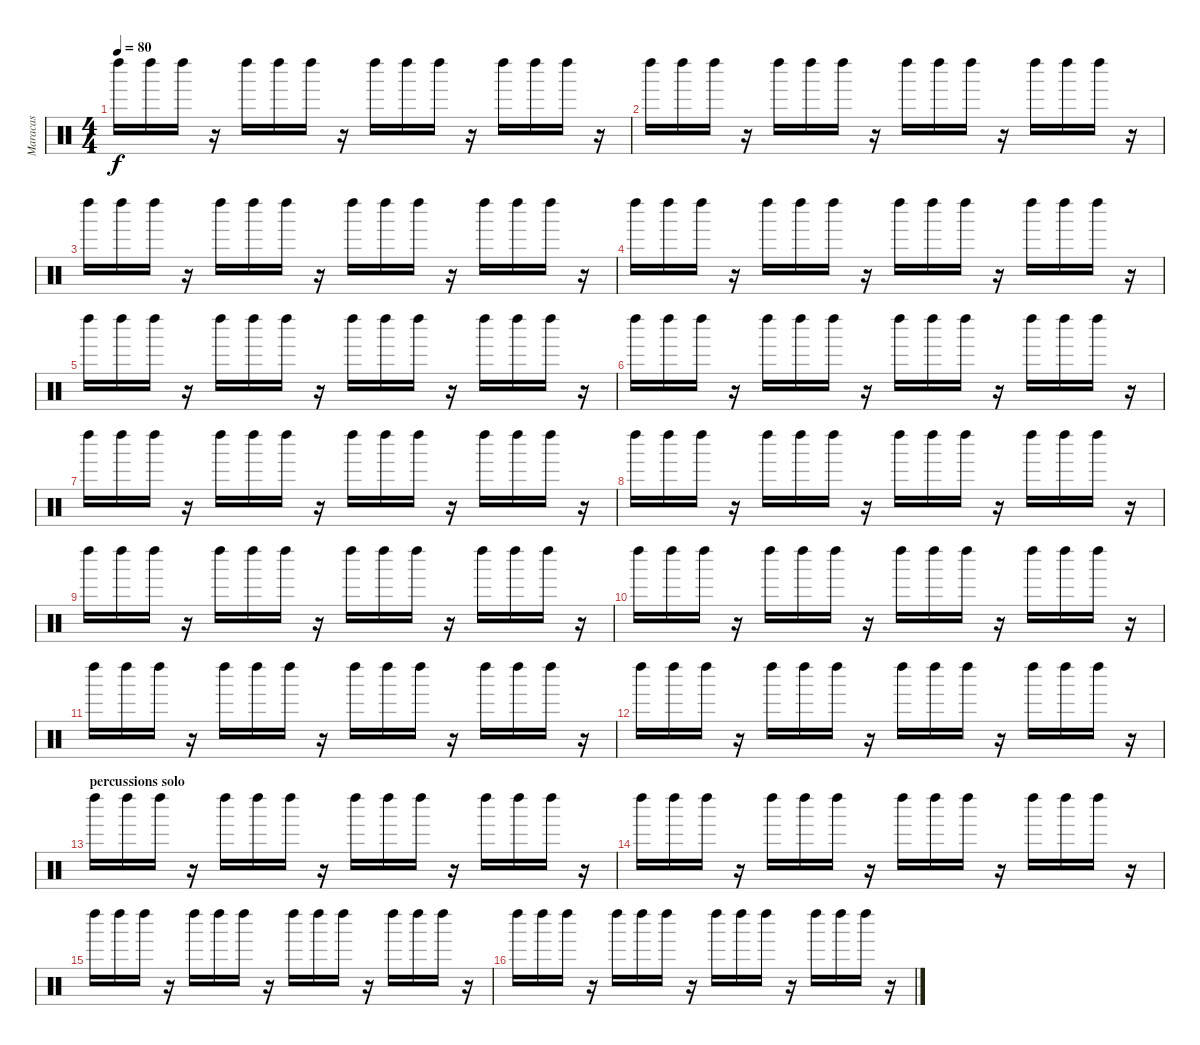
\track ("Maracas" "Maracas") {instrument percussion}
\staff {score}
\articulation defaults
\ts (4 4)
\tempo 80
\clef neutral
\ks aminor "Left Maraca (hit)".16{dy f} "Left Maraca (hit)".16 "Left Maraca (hit)".16
r.16 "Left Maraca (hit)".16 "Left Maraca (hit)".16 "Left Maraca (hit)".16 r.16 "Left Maraca (hit)".16 "Left Maraca (hit)".16 "Left Maraca (hit)".16 r.16 "Left Maraca (hit)".16 "Left Maraca (hit)".16 "Left Maraca (hit)".16 r.16 |
"Left Maraca (hit)".16 "Left Maraca (hit)".16 "Left Maraca (hit)".16 r.16 "Left Maraca (hit)".16 "Left Maraca (hit)".16 "Left Maraca (hit)".16 r.16 "Left Maraca (hit)".16 "Left Maraca (hit)".16 "Left Maraca (hit)".16 r.16 "Left Maraca (hit)".16 "Left Maraca (hit)".16 "Left Maraca (hit)".16 r.16 |
"Left Maraca (hit)".16 "Left Maraca (hit)".16 "Left Maraca (hit)".16 r.16 "Left Maraca (hit)".16 "Left Maraca (hit)".16 "Left Maraca (hit)".16 r.16 "Left Maraca (hit)".16 "Left Maraca (hit)".16 "Left Maraca (hit)".16 r.16 "Left Maraca (hit)".16 "Left Maraca (hit)".16 "Left Maraca (hit)".16 r.16 |
"Left Maraca (hit)".16 "Left Maraca (hit)".16 "Left Maraca (hit)".16 r.16 "Left Maraca (hit)".16 "Left Maraca (hit)".16 "Left Maraca (hit)".16 r.16 "Left Maraca (hit)".16 "Left Maraca (hit)".16 "Left Maraca (hit)".16 r.16 "Left Maraca (hit)".16 "Left Maraca (hit)".16 "Left Maraca (hit)".16 r.16 |
"Left Maraca (hit)".16 "Left Maraca (hit)".16 "Left Maraca (hit)".16 r.16 "Left Maraca (hit)".16 "Left Maraca (hit)".16 "Left Maraca (hit)".16 r.16 "Left Maraca (hit)".16 "Left Maraca (hit)".16 "Left Maraca (hit)".16 r.16 "Left Maraca (hit)".16 "Left Maraca (hit)".16 "Left Maraca (hit)".16 r.16 |
"Left Maraca (hit)".16 "Left Maraca (hit)".16 "Left Maraca (hit)".16 r.16 "Left Maraca (hit)".16 "Left Maraca (hit)".16 "Left Maraca (hit)".16 r.16 "Left Maraca (hit)".16 "Left Maraca (hit)".16 "Left Maraca (hit)".16 r.16 "Left Maraca (hit)".16 "Left Maraca (hit)".16 "Left Maraca (hit)".16 r.16 |
"Left Maraca (hit)".16 "Left Maraca (hit)".16 "Left Maraca (hit)".16 r.16 "Left Maraca (hit)".16 "Left Maraca (hit)".16 "Left Maraca (hit)".16 r.16 "Left Maraca (hit)".16 "Left Maraca (hit)".16 "Left Maraca (hit)".16 r.16 "Left Maraca (hit)".16 "Left Maraca (hit)".16 "Left Maraca (hit)".16 r.16 |
"Left Maraca (hit)".16 "Left Maraca (hit)".16 "Left Maraca (hit)".16 r.16 "Left Maraca (hit)".16 "Left Maraca (hit)".16 "Left Maraca (hit)".16 r.16 "Left Maraca (hit)".16 "Left Maraca (hit)".16 "Left Maraca (hit)".16 r.16 "Left Maraca (hit)".16 "Left Maraca (hit)".16 "Left Maraca (hit)".16 r.16 |
"Left Maraca (hit)".16 "Left Maraca (hit)".16 "Left Maraca (hit)".16 r.16 "Left Maraca (hit)".16 "Left Maraca (hit)".16 "Left Maraca (hit)".16 r.16 "Left Maraca (hit)".16 "Left Maraca (hit)".16 "Left Maraca (hit)".16 r.16 "Left Maraca (hit)".16 "Left Maraca (hit)".16 "Left Maraca (hit)".16 r.16 |
"Left Maraca (hit)".16 "Left Maraca (hit)".16 "Left Maraca (hit)".16 r.16 "Left Maraca (hit)".16 "Left Maraca (hit)".16 "Left Maraca (hit)".16 r.16 "Left Maraca (hit)".16 "Left Maraca (hit)".16 "Left Maraca (hit)".16 r.16 "Left Maraca (hit)".16 "Left Maraca (hit)".16 "Left Maraca (hit)".16 r.16 |
"Left Maraca (hit)".16 "Left Maraca (hit)".16 "Left Maraca (hit)".16 r.16 "Left Maraca (hit)".16 "Left Maraca (hit)".16 "Left Maraca (hit)".16 r.16 "Left Maraca (hit)".16 "Left Maraca (hit)".16 "Left Maraca (hit)".16 r.16 "Left Maraca (hit)".16 "Left Maraca (hit)".16 "Left Maraca (hit)".16 r.16 |
"Left Maraca (hit)".16 "Left Maraca (hit)".16 "Left Maraca (hit)".16 r.16 "Left Maraca (hit)".16 "Left Maraca (hit)".16 "Left Maraca (hit)".16 r.16 "Left Maraca (hit)".16 "Left Maraca (hit)".16 "Left Maraca (hit)".16 r.16 "Left Maraca (hit)".16 "Left Maraca (hit)".16 "Left Maraca (hit)".16 r.16 |
\section ("" "percussions solo")
"Left Maraca (hit)".16 "Left Maraca (hit)".16 "Left Maraca (hit)".16 r.16 "Left Maraca (hit)".16 "Left Maraca (hit)".16 "Left Maraca (hit)".16 r.16 "Left Maraca (hit)".16 "Left Maraca (hit)".16 "Left Maraca (hit)".16 r.16 "Left Maraca (hit)".16 "Left Maraca (hit)".16 "Left Maraca (hit)".16 r.16 |
"Left Maraca (hit)".16 "Left Maraca (hit)".16 "Left Maraca (hit)".16 r.16 "Left Maraca (hit)".16 "Left Maraca (hit)".16 "Left Maraca (hit)".16 r.16 "Left Maraca (hit)".16 "Left Maraca (hit)".16 "Left Maraca (hit)".16 r.16 "Left Maraca (hit)".16 "Left Maraca (hit)".16 "Left Maraca (hit)".16 r.16 |
"Left Maraca (hit)".16 "Left Maraca (hit)".16 "Left Maraca (hit)".16 r.16 "Left Maraca (hit)".16 "Left Maraca (hit)".16 "Left Maraca (hit)".16 r.16 "Left Maraca (hit)".16 "Left Maraca (hit)".16 "Left Maraca (hit)".16 r.16 "Left Maraca (hit)".16 "Left Maraca (hit)".16 "Left Maraca (hit)".16 r.16 |
"Left Maraca (hit)".16 "Left Maraca (hit)".16 "Left Maraca (hit)".16 r.16 "Left Maraca (hit)".16 "Left Maraca (hit)".16 "Left Maraca (hit)".16 r.16 "Left Maraca (hit)".16 "Left Maraca (hit)".16 "Left Maraca (hit)".16 r.16 "Left Maraca (hit)".16 "Left Maraca (hit)".16 "Left Maraca (hit)".16 r.16
